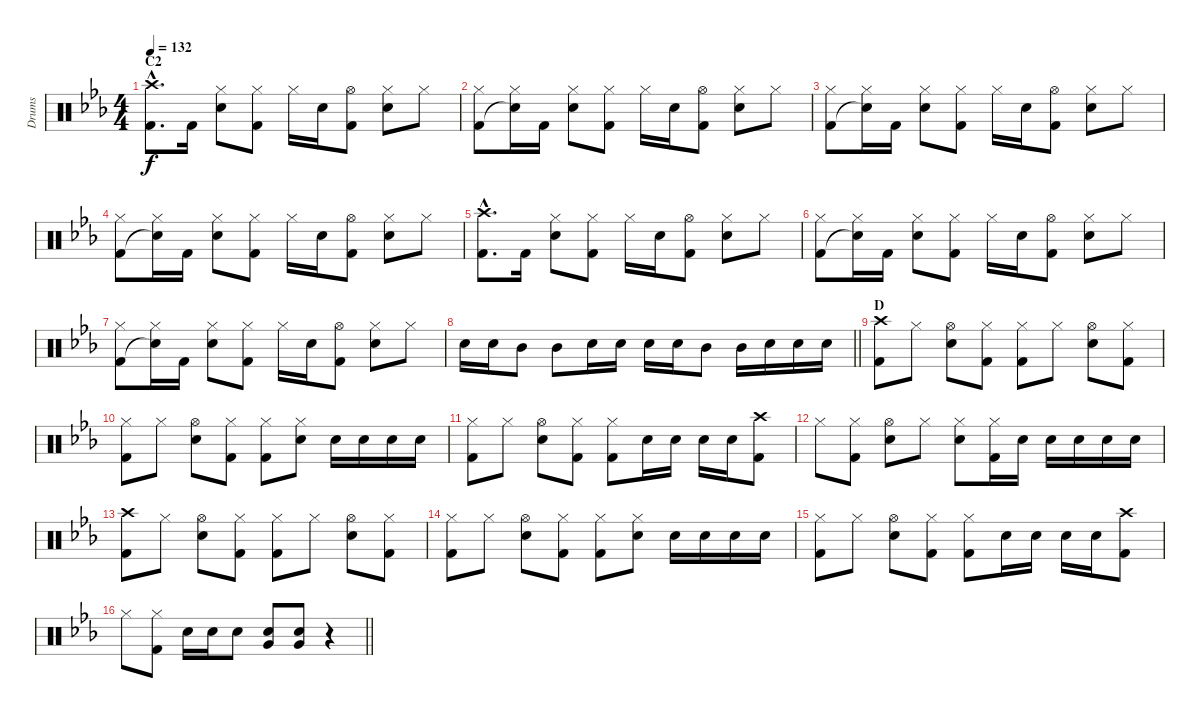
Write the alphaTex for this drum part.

\track ("Drums" "Drums") {instrument percussion}
\staff {score}
\articulation defaults
\ts (4 4)
\section ("" "C2")
\tempo 132
\clef neutral
\ks eb
("Crash high (hit)"{hac} "Kick (hit) 2"{hac}).8{d dy f} "Kick (hit) 2".16 ("Hi-Hat (closed)" "Snare (hit) 2").8 ("Hi-Hat (closed)" "Kick (hit) 2").8 "Hi-Hat (closed)".16 "Snare (hit) 2".16 ("Hi-Hat (open)" "Kick (hit) 2").8 ("Hi-Hat (closed)" "Snare (hit) 2").8 "Hi-Hat (closed)".8 |
("Hi-Hat (closed)" "Kick (hit) 2").8 ("Hi-Hat (closed)" "Snare (hit)"{t}).16 "Kick (hit) 2".16 ("Hi-Hat (closed)" "Snare (hit) 2").8 ("Hi-Hat (closed)" "Kick (hit) 2").8 "Hi-Hat (closed)".16 "Snare (hit) 2".16 ("Hi-Hat (open)" "Kick (hit) 2").8 ("Hi-Hat (closed)" "Snare (hit) 2").8 "Hi-Hat (closed)".8 |
("Hi-Hat (closed)" "Kick (hit) 2").8 ("Hi-Hat (closed)" "Snare (hit)"{t}).16 "Kick (hit) 2".16 ("Hi-Hat (closed)" "Snare (hit) 2").8 ("Hi-Hat (closed)" "Kick (hit) 2").8 "Hi-Hat (closed)".16 "Snare (hit) 2".16 ("Hi-Hat (open)" "Kick (hit) 2").8 ("Hi-Hat (closed)" "Snare (hit) 2").8 "Hi-Hat (closed)".8 |
("Hi-Hat (closed)" "Kick (hit) 2").8 ("Hi-Hat (closed)" "Snare (hit)"{t}).16 "Kick (hit) 2".16 ("Hi-Hat (closed)" "Snare (hit) 2").8 ("Hi-Hat (closed)" "Kick (hit) 2").8 "Hi-Hat (closed)".16 "Snare (hit) 2".16 ("Hi-Hat (open)" "Kick (hit) 2").8 ("Hi-Hat (closed)" "Snare (hit) 2").8 "Hi-Hat (closed)".8 |
("Crash high (hit)"{hac} "Kick (hit) 2"{hac}).8{d} "Kick (hit) 2".16 ("Hi-Hat (closed)" "Snare (hit) 2").8 ("Hi-Hat (closed)" "Kick (hit) 2").8 "Hi-Hat (closed)".16 "Snare (hit) 2".16 ("Hi-Hat (open)" "Kick (hit) 2").8 ("Hi-Hat (closed)" "Snare (hit) 2").8 "Hi-Hat (closed)".8 |
("Hi-Hat (closed)" "Kick (hit) 2").8 ("Hi-Hat (closed)" "Snare (hit)"{t}).16 "Kick (hit) 2".16 ("Hi-Hat (closed)" "Snare (hit) 2").8 ("Hi-Hat (closed)" "Kick (hit) 2").8 "Hi-Hat (closed)".16 "Snare (hit) 2".16 ("Hi-Hat (open)" "Kick (hit) 2").8 ("Hi-Hat (closed)" "Snare (hit) 2").8 "Hi-Hat (closed)".8 |
("Hi-Hat (closed)" "Kick (hit) 2").8 ("Hi-Hat (closed)" "Snare (hit)"{t}).16 "Kick (hit) 2".16 ("Hi-Hat (closed)" "Snare (hit) 2").8 ("Hi-Hat (closed)" "Kick (hit) 2").8 "Hi-Hat (closed)".16 "Snare (hit) 2".16 ("Hi-Hat (open)" "Kick (hit) 2").8 ("Hi-Hat (closed)" "Snare (hit) 2").8 "Hi-Hat (closed)".8 |
\barLineRight lightlight "Snare (hit) 2".16 "Snare (hit) 2".16 "Mid Tom (hit)".8 "Mid Tom (hit)".8 "Snare (hit) 2".16 "Snare (hit) 2".16 "Snare (hit) 2".16 "Snare (hit) 2".16 "Mid Tom (hit)".8 "Mid Tom (hit)".16 "Snare (hit) 2".16 "Snare (hit) 2".16 "Snare (hit) 2".16
|
\section ("" "D")
("Crash high (hit)" "Kick (hit) 2").8 "Hi-Hat (closed)".8 ("Hi-Hat (open)" "Snare (hit) 2").8 ("Hi-Hat (closed)" "Kick (hit) 2").8 ("Hi-Hat (closed)" "Kick (hit) 2").8 "Hi-Hat (closed)".8 ("Hi-Hat (open)" "Snare (hit) 2").8 ("Hi-Hat (closed)" "Kick (hit) 2").8 |
("Hi-Hat (closed)" "Kick (hit) 2").8 "Hi-Hat (closed)".8 ("Hi-Hat (open)" "Snare (hit) 2").8 ("Hi-Hat (closed)" "Kick (hit) 2").8 ("Hi-Hat (closed)" "Kick (hit) 2").8 ("Hi-Hat (closed)" "Snare (hit) 2").8 "Snare (hit) 2".16 "Snare (hit) 2".16 "Snare (hit) 2".16 "Snare (hit) 2".16 |
("Hi-Hat (closed)" "Kick (hit) 2").8 "Hi-Hat (closed)".8 ("Hi-Hat (open)" "Snare (hit) 2").8 ("Hi-Hat (closed)" "Kick (hit) 2").8 ("Hi-Hat (closed)" "Kick (hit) 2").8 "Snare (hit) 2".16 "Snare (hit) 2".16 "Snare (hit) 2".16 "Snare (hit) 2".16 ("Crash high (hit)" "Kick (hit) 2").8 |
"Hi-Hat (closed)".8 ("Hi-Hat (closed)" "Kick (hit) 2").8 ("Hi-Hat (open)" "Snare (hit) 2").8 "Hi-Hat (closed)".8 ("Hi-Hat (closed)" "Snare (hit) 2").8 ("Hi-Hat (closed)" "Kick (hit) 2").16 "Snare (hit) 2".16 "Snare (hit) 2".16 "Snare (hit) 2".16 "Snare (hit) 2".16 "Snare (hit) 2".16 |
("Crash high (hit)" "Kick (hit) 2").8 "Hi-Hat (closed)".8 ("Hi-Hat (open)" "Snare (hit) 2").8 ("Hi-Hat (closed)" "Kick (hit) 2").8 ("Hi-Hat (closed)" "Kick (hit) 2").8 "Hi-Hat (closed)".8 ("Hi-Hat (open)" "Snare (hit) 2").8 ("Hi-Hat (closed)" "Kick (hit) 2").8 |
("Hi-Hat (closed)" "Kick (hit) 2").8 "Hi-Hat (closed)".8 ("Hi-Hat (open)" "Snare (hit) 2").8 ("Hi-Hat (closed)" "Kick (hit) 2").8 ("Hi-Hat (closed)" "Kick (hit) 2").8 ("Hi-Hat (closed)" "Snare (hit) 2").8 "Snare (hit) 2".16 "Snare (hit) 2".16 "Snare (hit) 2".16 "Snare (hit) 2".16 |
("Hi-Hat (closed)" "Kick (hit) 2").8 "Hi-Hat (closed)".8 ("Hi-Hat (open)" "Snare (hit) 2").8 ("Hi-Hat (closed)" "Kick (hit) 2").8 ("Hi-Hat (closed)" "Kick (hit) 2").8 "Snare (hit) 2".16 "Snare (hit) 2".16 "Snare (hit) 2".16 "Snare (hit) 2".16 ("Crash high (hit)" "Kick (hit) 2").8 |
\barLineRight lightlight "Hi-Hat (closed)".8
("Hi-Hat (closed)" "Kick (hit) 2").8 "Snare (hit) 2".16 "Snare (hit) 2".16 "Snare (hit) 2".8 ("Snare (hit) 2" "Very Low Tom (hit)").8 ("Snare (hit) 2" "Very Low Tom (hit)").8 r.4
